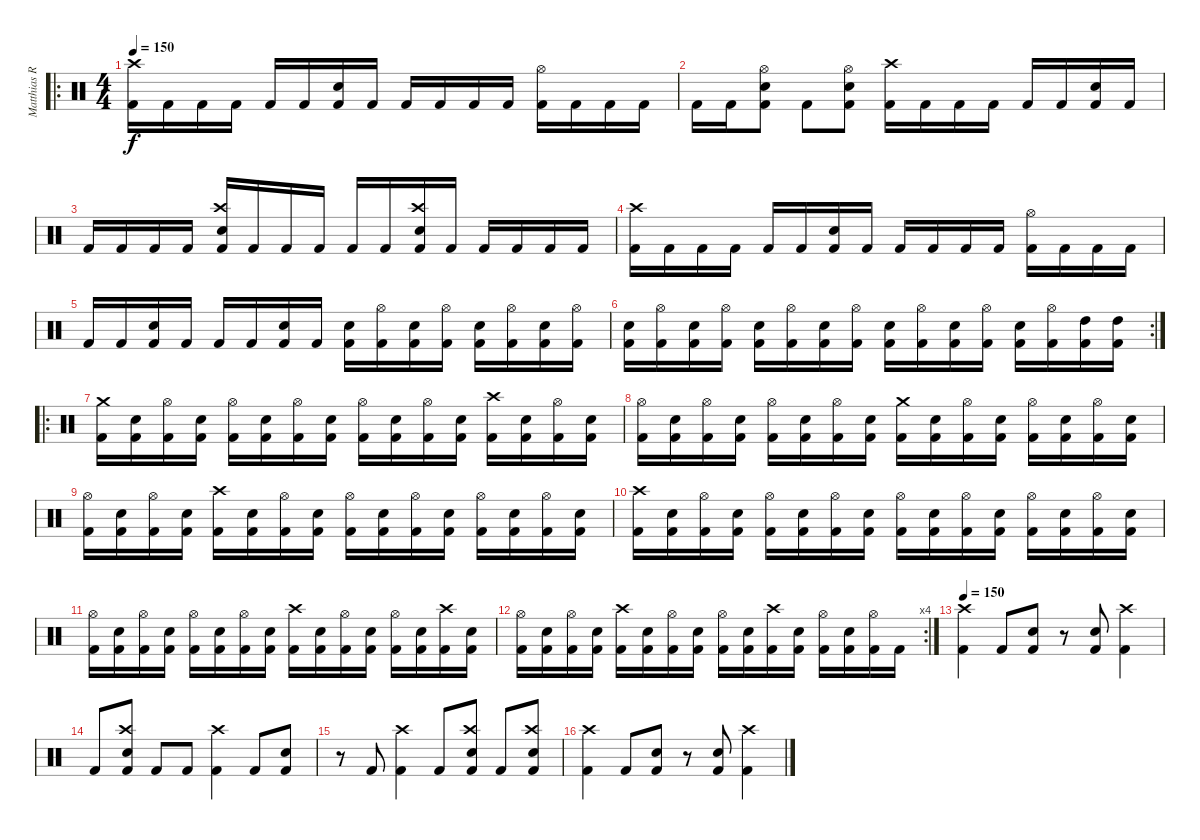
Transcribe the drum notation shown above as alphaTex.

\track ("Matthias Rodig" "Matthias R") {instrument percussion}
\staff {score}
\articulation defaults
\ro
\ts (4 4)
\tempo 150
\clef neutral
\ks c
("Kick (hit) 2" "Crash high (hit)").16{dy f} "Kick (hit) 2".16 "Kick (hit) 2".16 "Kick (hit) 2".16 "Kick (hit) 2".16 "Kick (hit) 2".16 ("Kick (hit) 2" "Snare (hit) 2").16 "Kick (hit) 2".16 "Kick (hit) 2".16 "Kick (hit) 2".16 "Kick (hit) 2".16 "Kick (hit) 2".16 ("Kick (hit) 2" "Hi-Hat (open)").16 "Kick (hit) 2".16 "Kick (hit) 2".16 "Kick (hit) 2".16 |
"Kick (hit) 2".16 "Kick (hit) 2".16 ("Kick (hit) 2" "Snare (hit) 2" "Hi-Hat (open)").8 "Kick (hit) 2".8 ("Kick (hit) 2" "Snare (hit) 2" "Hi-Hat (open)").8 ("Kick (hit) 2" "Crash high (hit)").16 "Kick (hit) 2".16 "Kick (hit) 2".16 "Kick (hit) 2".16 "Kick (hit) 2".16 "Kick (hit) 2".16 ("Kick (hit) 2" "Snare (hit) 2").16 "Kick (hit) 2".16 |
"Kick (hit) 2".16 "Kick (hit) 2".16 "Kick (hit) 2".16 "Kick (hit) 2".16 ("Kick (hit) 2" "Snare (hit) 2" "Crash high (hit)").16 "Kick (hit) 2".16 "Kick (hit) 2".16 "Kick (hit) 2".16 "Kick (hit) 2".16 "Kick (hit) 2".16 ("Kick (hit) 2" "Snare (hit) 2" "Crash high (hit)").16 "Kick (hit) 2".16 "Kick (hit) 2".16 "Kick (hit) 2".16 "Kick (hit) 2".16 "Kick (hit) 2".16 |
("Kick (hit) 2" "Crash high (hit)").16 "Kick (hit) 2".16 "Kick (hit) 2".16 "Kick (hit) 2".16 "Kick (hit) 2".16 "Kick (hit) 2".16 ("Kick (hit) 2" "Snare (hit) 2").16 "Kick (hit) 2".16 "Kick (hit) 2".16 "Kick (hit) 2".16 "Kick (hit) 2".16 "Kick (hit) 2".16 ("Kick (hit) 2" "Hi-Hat (open)").16 "Kick (hit) 2".16 "Kick (hit) 2".16 "Kick (hit) 2".16 |
"Kick (hit) 2".16 "Kick (hit) 2".16 ("Kick (hit) 2" "Snare (hit) 2").16 "Kick (hit) 2".16 "Kick (hit) 2".16 "Kick (hit) 2".16 ("Kick (hit) 2" "Snare (hit) 2").16 "Kick (hit) 2".16 ("Kick (hit) 2" "Snare (hit) 2").16 ("Kick (hit) 2" "Hi-Hat (open)").16 ("Kick (hit) 2" "Snare (hit) 2").16 ("Kick (hit) 2" "Hi-Hat (open)").16 ("Kick (hit) 2" "Snare (hit) 2").16 ("Kick (hit) 2" "Hi-Hat (open)").16 ("Kick (hit) 2" "Snare (hit) 2").16 ("Kick (hit) 2" "Hi-Hat (open)").16 |
\rc 2
("Kick (hit) 2" "Snare (hit) 2").16 ("Kick (hit) 2" "Hi-Hat (open)").16 ("Kick (hit) 2" "Snare (hit) 2").16 ("Kick (hit) 2" "Hi-Hat (open)").16 ("Kick (hit) 2" "Snare (hit) 2").16 ("Kick (hit) 2" "Hi-Hat (open)").16 ("Kick (hit) 2" "Snare (hit) 2").16 ("Kick (hit) 2" "Hi-Hat (open)").16 ("Kick (hit) 2" "Snare (hit) 2").16 ("Kick (hit) 2" "Hi-Hat (open)").16 ("Kick (hit) 2" "Snare (hit) 2").16 ("Kick (hit) 2" "Hi-Hat (open)").16 ("Kick (hit) 2" "Snare (hit) 2").16 ("Kick (hit) 2" "Hi-Hat (open)").16 ("Kick (hit) 2" "High Tom (hit)").16 ("Kick (hit) 2" "High Tom (hit)").16 |
\ro
("Kick (hit) 2" "Crash medium (hit)").16 ("Kick (hit) 2" "Snare (hit) 2").16 ("Kick (hit) 2" "Hi-Hat (open)").16 ("Kick (hit) 2" "Snare (hit) 2").16 ("Kick (hit) 2" "Hi-Hat (open)").16 ("Kick (hit) 2" "Snare (hit) 2").16 ("Kick (hit) 2" "Hi-Hat (open)").16 ("Kick (hit) 2" "Snare (hit) 2").16 ("Kick (hit) 2" "Hi-Hat (open)").16 ("Kick (hit) 2" "Snare (hit) 2").16 ("Kick (hit) 2" "Hi-Hat (open)").16 ("Kick (hit) 2" "Snare (hit) 2").16 ("Kick (hit) 2" "Crash high (hit)").16 ("Kick (hit) 2" "Snare (hit) 2").16 ("Kick (hit) 2" "Hi-Hat (open)").16 ("Kick (hit) 2" "Snare (hit) 2").16 |
("Kick (hit) 2" "Hi-Hat (open)").16 ("Kick (hit) 2" "Snare (hit) 2").16 ("Kick (hit) 2" "Hi-Hat (open)").16 ("Kick (hit) 2" "Snare (hit) 2").16 ("Kick (hit) 2" "Hi-Hat (open)").16 ("Kick (hit) 2" "Snare (hit) 2").16 ("Kick (hit) 2" "Hi-Hat (open)").16 ("Kick (hit) 2" "Snare (hit) 2").16 ("Kick (hit) 2" "Crash medium (hit)").16 ("Kick (hit) 2" "Snare (hit) 2").16 ("Kick (hit) 2" "Hi-Hat (open)").16 ("Kick (hit) 2" "Snare (hit) 2").16 ("Kick (hit) 2" "Hi-Hat (open)").16 ("Kick (hit) 2" "Snare (hit) 2").16 ("Kick (hit) 2" "Hi-Hat (open)").16 ("Kick (hit) 2" "Snare (hit) 2").16 |
("Kick (hit) 2" "Hi-Hat (open)").16 ("Kick (hit) 2" "Snare (hit) 2").16 ("Kick (hit) 2" "Hi-Hat (open)").16 ("Kick (hit) 2" "Snare (hit) 2").16 ("Kick (hit) 2" "Crash high (hit)").16 ("Kick (hit) 2" "Snare (hit) 2").16 ("Kick (hit) 2" "Hi-Hat (open)").16 ("Kick (hit) 2" "Snare (hit) 2").16 ("Kick (hit) 2" "Hi-Hat (open)").16 ("Kick (hit) 2" "Snare (hit) 2").16 ("Kick (hit) 2" "Hi-Hat (open)").16 ("Kick (hit) 2" "Snare (hit) 2").16 ("Kick (hit) 2" "Hi-Hat (open)").16 ("Kick (hit) 2" "Snare (hit) 2").16 ("Kick (hit) 2" "Hi-Hat (open)").16 ("Kick (hit) 2" "Snare (hit) 2").16 |
("Kick (hit) 2" "Crash high (hit)").16 ("Kick (hit) 2" "Snare (hit) 2").16 ("Kick (hit) 2" "Hi-Hat (open)").16 ("Kick (hit) 2" "Snare (hit) 2").16 ("Kick (hit) 2" "Hi-Hat (open)").16 ("Kick (hit) 2" "Snare (hit) 2").16 ("Kick (hit) 2" "Hi-Hat (open)").16 ("Kick (hit) 2" "Snare (hit) 2").16 ("Kick (hit) 2" "Hi-Hat (open)").16 ("Kick (hit) 2" "Snare (hit) 2").16 ("Kick (hit) 2" "Hi-Hat (open)").16 ("Kick (hit) 2" "Snare (hit) 2").16 ("Kick (hit) 2" "Hi-Hat (open)").16 ("Kick (hit) 2" "Snare (hit) 2").16 ("Kick (hit) 2" "Hi-Hat (open)").16 ("Kick (hit) 2" "Snare (hit) 2").16 |
("Kick (hit) 2" "Hi-Hat (open)").16 ("Kick (hit) 2" "Snare (hit) 2").16 ("Kick (hit) 2" "Hi-Hat (open)").16 ("Kick (hit) 2" "Snare (hit) 2").16 ("Kick (hit) 2" "Hi-Hat (open)").16 ("Kick (hit) 2" "Snare (hit) 2").16 ("Kick (hit) 2" "Hi-Hat (open)").16 ("Kick (hit) 2" "Snare (hit) 2").16 ("Kick (hit) 2" "Crash high (hit)").16 ("Kick (hit) 2" "Snare (hit) 2").16 ("Kick (hit) 2" "Hi-Hat (open)").16 ("Kick (hit) 2" "Snare (hit) 2").16 ("Kick (hit) 2" "Hi-Hat (open)").16 ("Kick (hit) 2" "Snare (hit) 2").16 ("Kick (hit) 2" "Crash high (hit)").16 ("Kick (hit) 2" "Snare (hit) 2").16 |
\rc 4
("Kick (hit) 2" "Hi-Hat (open)").16 ("Kick (hit) 2" "Snare (hit) 2").16 ("Kick (hit) 2" "Hi-Hat (open)").16 ("Kick (hit) 2" "Snare (hit) 2").16 ("Kick (hit) 2" "Crash high (hit)").16 ("Kick (hit) 2" "Snare (hit) 2").16 ("Kick (hit) 2" "Hi-Hat (open)").16 ("Kick (hit) 2" "Snare (hit) 2").16 ("Kick (hit) 2" "Hi-Hat (open)").16 ("Kick (hit) 2" "Snare (hit) 2").16 ("Kick (hit) 2" "Crash high (hit)").16 ("Kick (hit) 2" "Snare (hit) 2").16 ("Kick (hit) 2" "Hi-Hat (open)").16 ("Kick (hit) 2" "Snare (hit) 2").16 ("Kick (hit) 2" "Hi-Hat (open)").16 "Kick (hit) 2".16 |
\tempo 150
("Kick (hit) 2" "Crash high (hit)").4 "Kick (hit) 2".8 ("Kick (hit) 2" "Snare (hit) 2").8 r.8 ("Kick (hit) 2" "Snare (hit) 2").8 ("Kick (hit) 2" "Crash high (hit)").4 |
"Kick (hit) 2".8 ("Kick (hit) 2" "Snare (hit) 2" "Crash high (hit)").8 "Kick (hit) 2".8 "Kick (hit) 2".8 ("Kick (hit) 2" "Crash high (hit)").4 "Kick (hit) 2".8 ("Kick (hit) 2" "Snare (hit) 2").8 |
r.8 "Kick (hit) 2".8 ("Kick (hit) 2" "Crash high (hit)").4 "Kick (hit) 2".8 ("Kick (hit) 2" "Snare (hit) 2" "Crash high (hit)").8 "Kick (hit) 2".8 ("Kick (hit) 2" "Snare (hit) 2" "Crash high (hit)").8 |
("Kick (hit) 2" "Crash high (hit)").4 "Kick (hit) 2".8 ("Kick (hit) 2" "Snare (hit) 2").8 r.8 ("Kick (hit) 2" "Snare (hit) 2").8 ("Kick (hit) 2" "Crash high (hit)").4
